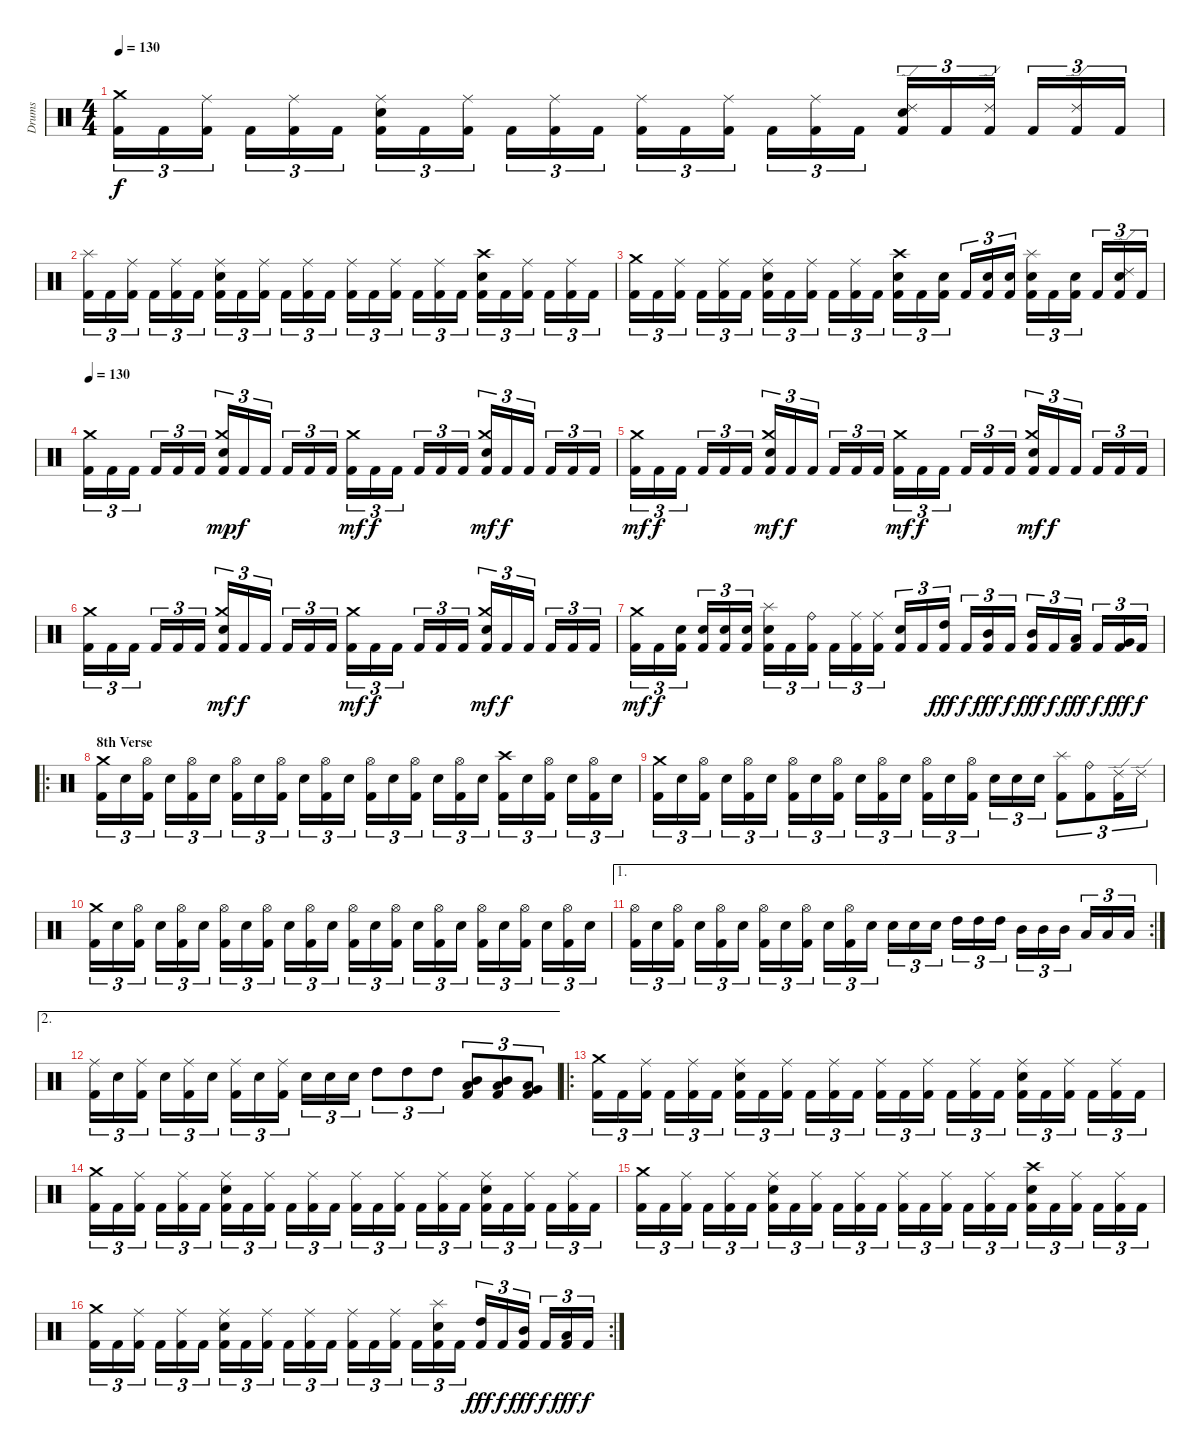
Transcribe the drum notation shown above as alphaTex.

\track ("Drums" "Drums") {instrument percussion}
\staff {score}
\articulation defaults
\ts (4 4)
\tempo 130
\clef neutral
\ks c
("Kick (hit) 2" "Crash medium (hit)").16{tu (3 2) dy f} "Kick (hit) 2".16{tu (3 2)} ("Kick (hit) 2" "Ride (middle)").16{tu (3 2)} "Kick (hit) 2".16{tu (3 2)} ("Kick (hit) 2" "Ride (middle)").16{tu (3 2)} "Kick (hit) 2".16{tu (3 2)} ("Kick (hit) 2" "Electric Snare (hit)" "Ride (middle)").16{tu (3 2)} "Kick (hit) 2".16{tu (3 2)} ("Kick (hit) 2" "Ride (middle)").16{tu (3 2)} "Kick (hit) 2".16{tu (3 2)} ("Kick (hit) 2" "Ride (middle)").16{tu (3 2)} "Kick (hit) 2".16{tu (3 2)} ("Kick (hit) 2" "Ride (middle)").16{tu (3 2)} "Kick (hit) 2".16{tu (3 2)} ("Kick (hit) 2" "Ride (middle)").16{tu (3 2)} "Kick (hit) 2".16{tu (3 2)} ("Kick (hit) 2" "Ride (middle)").16{tu (3 2)} "Kick (hit) 2".16{tu (3 2)} ("Kick (hit) 2" "Electric Snare (hit)" "Ride (edge) 2").16{tu (3 2)} "Kick (hit) 2".16{tu (3 2)} ("Kick (hit) 2" "Ride (edge) 2").16{tu (3 2)} "Kick (hit) 2".16{tu (3 2)} ("Kick (hit) 2" "Ride (edge) 2").16{tu (3 2)} "Kick (hit) 2".16{tu (3 2)} |
("Kick (hit) 2" "Splash (hit)").16{tu (3 2)} "Kick (hit) 2".16{tu (3 2)} ("Kick (hit) 2" "Ride (middle)").16{tu (3 2)} "Kick (hit) 2".16{tu (3 2)} ("Kick (hit) 2" "Ride (middle)").16{tu (3 2)} "Kick (hit) 2".16{tu (3 2)} ("Kick (hit) 2" "Electric Snare (hit)" "Ride (middle)").16{tu (3 2)} "Kick (hit) 2".16{tu (3 2)} ("Kick (hit) 2" "Ride (middle)").16{tu (3 2)} "Kick (hit) 2".16{tu (3 2)} ("Kick (hit) 2" "Ride (middle)").16{tu (3 2)} "Kick (hit) 2".16{tu (3 2)} ("Kick (hit) 2" "Ride (middle)").16{tu (3 2)} "Kick (hit) 2".16{tu (3 2)} ("Kick (hit) 2" "Ride (middle)").16{tu (3 2)} "Kick (hit) 2".16{tu (3 2)} ("Kick (hit) 2" "Ride (middle)").16{tu (3 2)} "Kick (hit) 2".16{tu (3 2)} ("Kick (hit) 2" "Electric Snare (hit)" "Crash high (hit)").16{tu (3 2)} "Kick (hit) 2".16{tu (3 2)} ("Kick (hit) 2" "Ride (middle)").16{tu (3 2)} "Kick (hit) 2".16{tu (3 2)} ("Kick (hit) 2" "Ride (middle)").16{tu (3 2)} "Kick (hit) 2".16{tu (3 2)} |
("Kick (hit) 2" "Crash medium (hit)").16{tu (3 2)} "Kick (hit) 2".16{tu (3 2)} ("Kick (hit) 2" "Ride (middle)").16{tu (3 2)} "Kick (hit) 2".16{tu (3 2)} ("Kick (hit) 2" "Ride (middle)").16{tu (3 2)} "Kick (hit) 2".16{tu (3 2)} ("Kick (hit) 2" "Electric Snare (hit)" "Ride (middle)").16{tu (3 2)} "Kick (hit) 2".16{tu (3 2)} ("Kick (hit) 2" "Ride (middle)").16{tu (3 2)} "Kick (hit) 2".16{tu (3 2)} ("Kick (hit) 2" "Ride (middle)").16{tu (3 2)} "Kick (hit) 2".16{tu (3 2)} ("Kick (hit) 2" "Electric Snare (hit)" "Crash high (hit)").16{tu (3 2)} "Kick (hit) 2".16{tu (3 2)} ("Kick (hit) 2" "Electric Snare (hit)").16{tu (3 2)} "Kick (hit) 2".16{tu (3 2)} ("Kick (hit) 2" "Electric Snare (hit)").16{tu (3 2)} ("Kick (hit) 2" "Electric Snare (hit)").16{tu (3 2)} ("Kick (hit) 2" "Electric Snare (hit)" "Splash (hit)").16{tu (3 2)} "Kick (hit) 2".16{tu (3 2)} ("Kick (hit) 2" "Electric Snare (hit)").16{tu (3 2)} "Kick (hit) 2".16{tu (3 2)} ("Kick (hit) 2" "Electric Snare (hit)" "Ride (edge) 2").16{tu (3 2)} "Kick (hit) 2".16{tu (3 2)} |
\tempo 130
("Kick (hit) 2" "Crash medium (hit)").16{tu (3 2)} "Kick (hit) 2".16{tu (3 2)} "Kick (hit) 2".16{tu (3 2)} "Kick (hit) 2".16{tu (3 2)} "Kick (hit) 2".16{tu (3 2)} "Kick (hit) 2".16{tu (3 2)} ("Kick (hit) 2" "Electric Snare (hit)" "Crash medium (hit)").16{tu (3 2) dy mp} "Kick (hit) 2".16{tu (3 2) dy f} "Kick (hit) 2".16{tu (3 2)} "Kick (hit) 2".16{tu (3 2)} "Kick (hit) 2".16{tu (3 2)} "Kick (hit) 2".16{tu (3 2)} ("Kick (hit) 2" "Crash medium (hit)").16{tu (3 2) dy mf} "Kick (hit) 2".16{tu (3 2) dy f} "Kick (hit) 2".16{tu (3 2)} "Kick (hit) 2".16{tu (3 2)} "Kick (hit) 2".16{tu (3 2)} "Kick (hit) 2".16{tu (3 2)} ("Kick (hit) 2" "Electric Snare (hit)" "Crash medium (hit)").16{tu (3 2) dy mf} "Kick (hit) 2".16{tu (3 2) dy f} "Kick (hit) 2".16{tu (3 2)} "Kick (hit) 2".16{tu (3 2)} "Kick (hit) 2".16{tu (3 2)} "Kick (hit) 2".16{tu (3 2)} |
("Kick (hit) 2" "Crash medium (hit)").16{tu (3 2) dy mf} "Kick (hit) 2".16{tu (3 2) dy f} "Kick (hit) 2".16{tu (3 2)} "Kick (hit) 2".16{tu (3 2)} "Kick (hit) 2".16{tu (3 2)} "Kick (hit) 2".16{tu (3 2)} ("Kick (hit) 2" "Electric Snare (hit)" "Crash medium (hit)").16{tu (3 2) dy mf} "Kick (hit) 2".16{tu (3 2) dy f} "Kick (hit) 2".16{tu (3 2)} "Kick (hit) 2".16{tu (3 2)} "Kick (hit) 2".16{tu (3 2)} "Kick (hit) 2".16{tu (3 2)} ("Kick (hit) 2" "Crash medium (hit)").16{tu (3 2) dy mf} "Kick (hit) 2".16{tu (3 2) dy f} "Kick (hit) 2".16{tu (3 2)} "Kick (hit) 2".16{tu (3 2)} "Kick (hit) 2".16{tu (3 2)} "Kick (hit) 2".16{tu (3 2)} ("Kick (hit) 2" "Electric Snare (hit)" "Crash medium (hit)").16{tu (3 2) dy mf} "Kick (hit) 2".16{tu (3 2) dy f} "Kick (hit) 2".16{tu (3 2)} "Kick (hit) 2".16{tu (3 2)} "Kick (hit) 2".16{tu (3 2)} "Kick (hit) 2".16{tu (3 2)} |
("Kick (hit) 2" "Crash medium (hit)").16{tu (3 2)} "Kick (hit) 2".16{tu (3 2)} "Kick (hit) 2".16{tu (3 2)} "Kick (hit) 2".16{tu (3 2)} "Kick (hit) 2".16{tu (3 2)} "Kick (hit) 2".16{tu (3 2)} ("Kick (hit) 2" "Electric Snare (hit)" "Crash medium (hit)").16{tu (3 2) dy mf} "Kick (hit) 2".16{tu (3 2) dy f} "Kick (hit) 2".16{tu (3 2)} "Kick (hit) 2".16{tu (3 2)} "Kick (hit) 2".16{tu (3 2)} "Kick (hit) 2".16{tu (3 2)} ("Kick (hit) 2" "Crash medium (hit)").16{tu (3 2) dy mf} "Kick (hit) 2".16{tu (3 2) dy f} "Kick (hit) 2".16{tu (3 2)} "Kick (hit) 2".16{tu (3 2)} "Kick (hit) 2".16{tu (3 2)} "Kick (hit) 2".16{tu (3 2)} ("Kick (hit) 2" "Electric Snare (hit)" "Crash medium (hit)").16{tu (3 2) dy mf} "Kick (hit) 2".16{tu (3 2) dy f} "Kick (hit) 2".16{tu (3 2)} "Kick (hit) 2".16{tu (3 2)} "Kick (hit) 2".16{tu (3 2)} "Kick (hit) 2".16{tu (3 2)} |
("Kick (hit) 2" "Crash medium (hit)").16{tu (3 2) dy mf} "Kick (hit) 2".16{tu (3 2) dy f} ("Kick (hit) 2" "Electric Snare (hit)").16{tu (3 2)} ("Kick (hit) 2" "Electric Snare (hit)").16{tu (3 2)} ("Kick (hit) 2" "Electric Snare (hit)").16{tu (3 2)} ("Kick (hit) 2" "Electric Snare (hit)").16{tu (3 2)} ("Kick (hit) 2" "Electric Snare (hit)" "Splash (hit)").16{tu (3 2)} "Kick (hit) 2".16{tu (3 2)} ("Kick (hit) 2" "Ride (bell)").16{tu (3 2)} "Kick (hit) 2".16{tu (3 2)} ("Kick (hit) 2" "Ride (middle)").16{tu (3 2)} ("Kick (hit) 2" "Ride (middle)").16{tu (3 2)} ("Kick (hit) 2" "Electric Snare (hit)").16{tu (3 2)} "Kick (hit) 2".16{tu (3 2)} ("Kick (hit) 2" "High Tom (hit)").16{tu (3 2) dy fff} "Kick (hit) 2".16{tu (3 2) dy f} ("Kick (hit) 2" "Mid Tom (hit)").16{tu (3 2) dy fff} "Kick (hit) 2".16{tu (3 2) dy f} ("Kick (hit) 2" "Mid Tom (hit)").16{tu (3 2) dy fff} "Kick (hit) 2".16{tu (3 2) dy f} ("Kick (hit) 2" "Low Tom (hit)").16{tu (3 2) dy fff} "Kick (hit) 2".16{tu (3 2) dy f} ("Kick (hit) 2" "Very Low Tom (hit)").16{tu (3 2) dy fff} "Kick (hit) 2".16{tu (3 2) dy f} |
\ro
\section ("" "8th Verse")
("Kick (hit) 2" "Crash medium (hit)").16{tu (3 2)} "Electric Snare (hit)".16{tu (3 2)} ("Kick (hit) 2" "Hi-Hat (open)").16{tu (3 2)} "Electric Snare (hit)".16{tu (3 2)} ("Kick (hit) 2" "Hi-Hat (open)").16{tu (3 2)} "Electric Snare (hit)".16{tu (3 2)} ("Kick (hit) 2" "Hi-Hat (open)").16{tu (3 2)} "Electric Snare (hit)".16{tu (3 2)} ("Kick (hit) 2" "Hi-Hat (open)").16{tu (3 2)} "Electric Snare (hit)".16{tu (3 2)} ("Kick (hit) 2" "Hi-Hat (open)").16{tu (3 2)} "Electric Snare (hit)".16{tu (3 2)} ("Kick (hit) 2" "Hi-Hat (open)").16{tu (3 2)} "Electric Snare (hit)".16{tu (3 2)} ("Kick (hit) 2" "Hi-Hat (open)").16{tu (3 2)} "Electric Snare (hit)".16{tu (3 2)} ("Kick (hit) 2" "Hi-Hat (open)").16{tu (3 2)} "Electric Snare (hit)".16{tu (3 2)} ("Kick (hit) 2" "Crash high (hit)").16{tu (3 2)} "Electric Snare (hit)".16{tu (3 2)} ("Kick (hit) 2" "Hi-Hat (open)").16{tu (3 2)} "Electric Snare (hit)".16{tu (3 2)} ("Kick (hit) 2" "Hi-Hat (open)").16{tu (3 2)} "Electric Snare (hit)".16{tu (3 2)} |
("Kick (hit) 2" "Crash medium (hit)").16{tu (3 2)} "Electric Snare (hit)".16{tu (3 2)} ("Kick (hit) 2" "Hi-Hat (open)").16{tu (3 2)} "Electric Snare (hit)".16{tu (3 2)} ("Kick (hit) 2" "Hi-Hat (open)").16{tu (3 2)} "Electric Snare (hit)".16{tu (3 2)} ("Kick (hit) 2" "Hi-Hat (open)").16{tu (3 2)} "Electric Snare (hit)".16{tu (3 2)} ("Kick (hit) 2" "Hi-Hat (open)").16{tu (3 2)} "Electric Snare (hit)".16{tu (3 2)} ("Kick (hit) 2" "Hi-Hat (open)").16{tu (3 2)} "Electric Snare (hit)".16{tu (3 2)} ("Kick (hit) 2" "Hi-Hat (open)").16{tu (3 2)} "Electric Snare (hit)".16{tu (3 2)} ("Kick (hit) 2" "Hi-Hat (open)").16{tu (3 2)} "Electric Snare (hit)".16{tu (3 2)} "Electric Snare (hit)".16{tu (3 2)} "Electric Snare (hit)".16{tu (3 2)} ("Kick (hit) 2" "Splash (hit)").8{tu (3 2)} ("Kick (hit) 2" "Ride (bell)").8{tu (3 2)} ("Kick (hit) 2" "Ride (edge) 2").16{tu (3 2)} "Ride (edge) 2".16{tu (3 2)} |
("Kick (hit) 2" "Crash medium (hit)").16{tu (3 2)} "Electric Snare (hit)".16{tu (3 2)} ("Kick (hit) 2" "Hi-Hat (open)").16{tu (3 2)} "Electric Snare (hit)".16{tu (3 2)} ("Kick (hit) 2" "Hi-Hat (open)").16{tu (3 2)} "Electric Snare (hit)".16{tu (3 2)} ("Kick (hit) 2" "Hi-Hat (open)").16{tu (3 2)} "Electric Snare (hit)".16{tu (3 2)} ("Kick (hit) 2" "Hi-Hat (open)").16{tu (3 2)} "Electric Snare (hit)".16{tu (3 2)} ("Kick (hit) 2" "Hi-Hat (open)").16{tu (3 2)} "Electric Snare (hit)".16{tu (3 2)} ("Kick (hit) 2" "Hi-Hat (open)").16{tu (3 2)} "Electric Snare (hit)".16{tu (3 2)} ("Kick (hit) 2" "Hi-Hat (open)").16{tu (3 2)} "Electric Snare (hit)".16{tu (3 2)} ("Kick (hit) 2" "Hi-Hat (open)").16{tu (3 2)} "Electric Snare (hit)".16{tu (3 2)} ("Kick (hit) 2" "Hi-Hat (open)").16{tu (3 2)} "Electric Snare (hit)".16{tu (3 2)} ("Kick (hit) 2" "Hi-Hat (open)").16{tu (3 2)} "Electric Snare (hit)".16{tu (3 2)} ("Kick (hit) 2" "Hi-Hat (open)").16{tu (3 2)} "Electric Snare (hit)".16{tu (3 2)} |
\ae 1
\rc 2
("Kick (hit) 2" "Hi-Hat (open)").16{tu (3 2)} "Electric Snare (hit)".16{tu (3 2)} ("Kick (hit) 2" "Hi-Hat (open)").16{tu (3 2)} "Electric Snare (hit)".16{tu (3 2)} ("Kick (hit) 2" "Hi-Hat (open)").16{tu (3 2)} "Electric Snare (hit)".16{tu (3 2)} ("Kick (hit) 2" "Hi-Hat (open)").16{tu (3 2)} "Electric Snare (hit)".16{tu (3 2)} ("Kick (hit) 2" "Hi-Hat (open)").16{tu (3 2)} "Electric Snare (hit)".16{tu (3 2)} ("Kick (hit) 2" "Hi-Hat (open)").16{tu (3 2)} "Electric Snare (hit)".16{tu (3 2)} "Electric Snare (hit)".16{tu (3 2)} "Electric Snare (hit)".16{tu (3 2)} "Electric Snare (hit)".16{tu (3 2)} "High Tom (hit)".16{tu (3 2)} "High Tom (hit)".16{tu (3 2)} "High Tom (hit)".16{tu (3 2)} "Mid Tom (hit)".16{tu (3 2)} "Mid Tom (hit)".16{tu (3 2)} "Mid Tom (hit)".16{tu (3 2)} "Low Tom (hit)".16{tu (3 2)} "Low Tom (hit)".16{tu (3 2)} "Low Tom (hit)".16{tu (3 2)} |
\ae 2
("Kick (hit) 2" "Ride (middle)").16{tu (3 2)} "Electric Snare (hit)".16{tu (3 2)} ("Kick (hit) 2" "Ride (middle)").16{tu (3 2)} "Electric Snare (hit)".16{tu (3 2)} ("Kick (hit) 2" "Ride (middle)").16{tu (3 2)} "Electric Snare (hit)".16{tu (3 2)} ("Kick (hit) 2" "Ride (middle)").16{tu (3 2)} "Electric Snare (hit)".16{tu (3 2)} ("Kick (hit) 2" "Ride (middle)").16{tu (3 2)} "Electric Snare (hit)".16{tu (3 2)} "Electric Snare (hit)".16{tu (3 2)} "Electric Snare (hit)".16{tu (3 2)} "High Tom (hit)".8{tu (3 2)} "High Tom (hit)".8{tu (3 2)} "High Tom (hit)".8{tu (3 2)} ("Kick (hit) 2" "Mid Tom (hit)" "Low Tom (hit)").8{tu (3 2)} ("Kick (hit) 2" "Mid Tom (hit)" "Low Tom (hit)").8{tu (3 2)} ("Kick (hit) 2" "Low Tom (hit)" "Very Low Tom (hit)").8{tu (3 2)} |
\ro
("Kick (hit) 2" "Crash medium (hit)").16{tu (3 2)} "Kick (hit) 2".16{tu (3 2)} ("Kick (hit) 2" "Ride (middle)").16{tu (3 2)} "Kick (hit) 2".16{tu (3 2)} ("Kick (hit) 2" "Ride (middle)").16{tu (3 2)} "Kick (hit) 2".16{tu (3 2)} ("Kick (hit) 2" "Electric Snare (hit)" "Ride (middle)").16{tu (3 2)} "Kick (hit) 2".16{tu (3 2)} ("Kick (hit) 2" "Ride (middle)").16{tu (3 2)} "Kick (hit) 2".16{tu (3 2)} ("Kick (hit) 2" "Ride (middle)").16{tu (3 2)} "Kick (hit) 2".16{tu (3 2)} ("Kick (hit) 2" "Ride (middle)").16{tu (3 2)} "Kick (hit) 2".16{tu (3 2)} ("Kick (hit) 2" "Ride (middle)").16{tu (3 2)} "Kick (hit) 2".16{tu (3 2)} ("Kick (hit) 2" "Ride (middle)").16{tu (3 2)} "Kick (hit) 2".16{tu (3 2)} ("Kick (hit) 2" "Electric Snare (hit)" "Ride (middle)").16{tu (3 2)} "Kick (hit) 2".16{tu (3 2)} ("Kick (hit) 2" "Ride (middle)").16{tu (3 2)} "Kick (hit) 2".16{tu (3 2)} ("Kick (hit) 2" "Ride (middle)").16{tu (3 2)} "Kick (hit) 2".16{tu (3 2)} |
("Kick (hit) 2" "Crash medium (hit)").16{tu (3 2)} "Kick (hit) 2".16{tu (3 2)} ("Kick (hit) 2" "Ride (middle)").16{tu (3 2)} "Kick (hit) 2".16{tu (3 2)} ("Kick (hit) 2" "Ride (middle)").16{tu (3 2)} "Kick (hit) 2".16{tu (3 2)} ("Kick (hit) 2" "Electric Snare (hit)" "Ride (middle)").16{tu (3 2)} "Kick (hit) 2".16{tu (3 2)} ("Kick (hit) 2" "Ride (middle)").16{tu (3 2)} "Kick (hit) 2".16{tu (3 2)} ("Kick (hit) 2" "Ride (middle)").16{tu (3 2)} "Kick (hit) 2".16{tu (3 2)} ("Kick (hit) 2" "Ride (middle)").16{tu (3 2)} "Kick (hit) 2".16{tu (3 2)} ("Kick (hit) 2" "Ride (middle)").16{tu (3 2)} "Kick (hit) 2".16{tu (3 2)} ("Kick (hit) 2" "Ride (middle)").16{tu (3 2)} "Kick (hit) 2".16{tu (3 2)} ("Kick (hit) 2" "Electric Snare (hit)" "Ride (middle)").16{tu (3 2)} "Kick (hit) 2".16{tu (3 2)} ("Kick (hit) 2" "Ride (middle)").16{tu (3 2)} "Kick (hit) 2".16{tu (3 2)} ("Kick (hit) 2" "Ride (middle)").16{tu (3 2)} "Kick (hit) 2".16{tu (3 2)} |
("Kick (hit) 2" "Crash medium (hit)").16{tu (3 2)} "Kick (hit) 2".16{tu (3 2)} ("Kick (hit) 2" "Ride (middle)").16{tu (3 2)} "Kick (hit) 2".16{tu (3 2)} ("Kick (hit) 2" "Ride (middle)").16{tu (3 2)} "Kick (hit) 2".16{tu (3 2)} ("Kick (hit) 2" "Electric Snare (hit)" "Ride (middle)").16{tu (3 2)} "Kick (hit) 2".16{tu (3 2)} ("Kick (hit) 2" "Ride (middle)").16{tu (3 2)} "Kick (hit) 2".16{tu (3 2)} ("Kick (hit) 2" "Ride (middle)").16{tu (3 2)} "Kick (hit) 2".16{tu (3 2)} ("Kick (hit) 2" "Ride (middle)").16{tu (3 2)} "Kick (hit) 2".16{tu (3 2)} ("Kick (hit) 2" "Ride (middle)").16{tu (3 2)} "Kick (hit) 2".16{tu (3 2)} ("Kick (hit) 2" "Ride (middle)").16{tu (3 2)} "Kick (hit) 2".16{tu (3 2)} ("Kick (hit) 2" "Electric Snare (hit)" "Crash high (hit)").16{tu (3 2)} "Kick (hit) 2".16{tu (3 2)} ("Kick (hit) 2" "Ride (middle)").16{tu (3 2)} "Kick (hit) 2".16{tu (3 2)} ("Kick (hit) 2" "Ride (middle)").16{tu (3 2)} "Kick (hit) 2".16{tu (3 2)} |
\rc 2
("Kick (hit) 2" "Crash medium (hit)").16{tu (3 2)} "Kick (hit) 2".16{tu (3 2)} ("Kick (hit) 2" "Ride (middle)").16{tu (3 2)} "Kick (hit) 2".16{tu (3 2)} ("Kick (hit) 2" "Ride (middle)").16{tu (3 2)} "Kick (hit) 2".16{tu (3 2)} ("Kick (hit) 2" "Electric Snare (hit)" "Ride (middle)").16{tu (3 2)} "Kick (hit) 2".16{tu (3 2)} ("Kick (hit) 2" "Ride (middle)").16{tu (3 2)} "Kick (hit) 2".16{tu (3 2)} ("Kick (hit) 2" "Ride (middle)").16{tu (3 2)} "Kick (hit) 2".16{tu (3 2)} ("Kick (hit) 2" "Ride (middle)").16{tu (3 2)} "Kick (hit) 2".16{tu (3 2)} ("Kick (hit) 2" "Ride (middle)").16{tu (3 2)} "Kick (hit) 2".16{tu (3 2)} ("Kick (hit) 2" "Electric Snare (hit)" "Splash (hit)").16{tu (3 2)} "Kick (hit) 2".16{tu (3 2)} ("Kick (hit) 2" "High Tom (hit)").16{tu (3 2) dy fff} "Kick (hit) 2".16{tu (3 2) dy f} ("Kick (hit) 2" "Mid Tom (hit)").16{tu (3 2) dy fff} "Kick (hit) 2".16{tu (3 2) dy f} ("Kick (hit) 2" "Low Tom (hit)").16{tu (3 2) dy fff} "Kick (hit) 2".16{tu (3 2) dy f}
